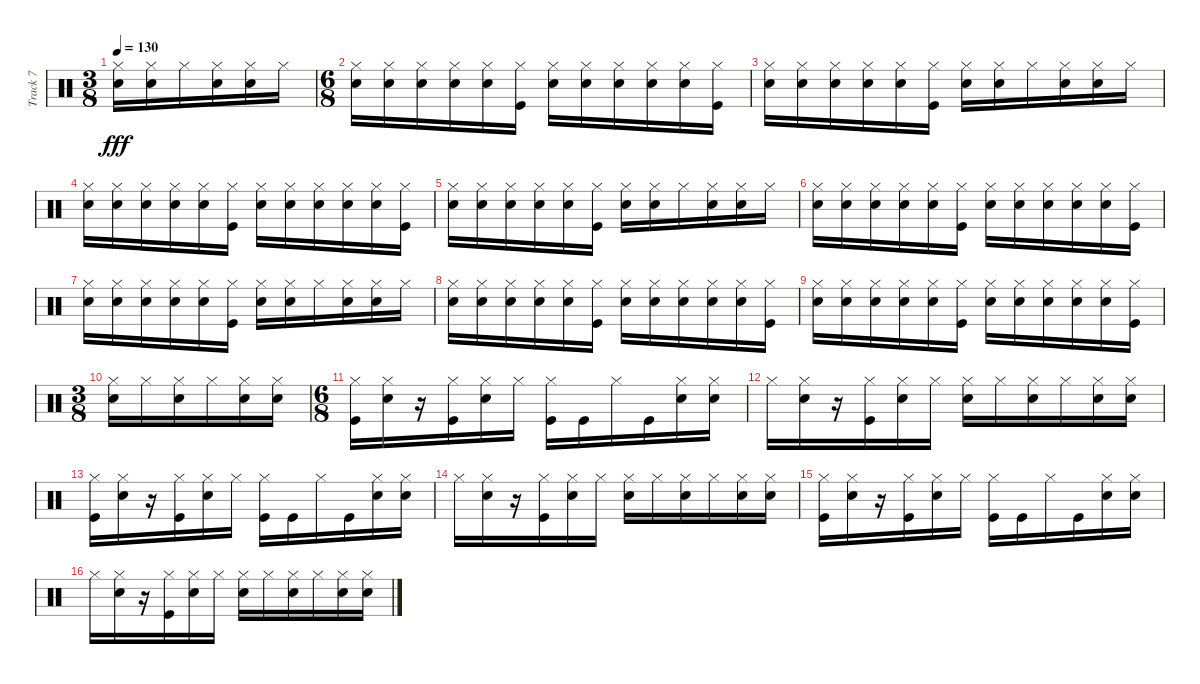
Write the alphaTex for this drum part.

\track ("Track 7" "Track 7") {instrument percussion}
\staff {score}
\articulation defaults
\ts (3 8)
\tempo 130
\clef neutral
\ks c
("Snare (hit) 2" "Hi-Hat (closed)").16{dy fff} ("Snare (hit) 2" "Hi-Hat (closed)").16 "Hi-Hat (closed)".16 ("Snare (hit) 2" "Hi-Hat (closed)").16 ("Snare (hit) 2" "Hi-Hat (closed)").16 "Hi-Hat (closed)".16 |
\ts (6 8)
("Snare (hit) 2" "Hi-Hat (closed)").16 ("Snare (hit) 2" "Hi-Hat (closed)").16 ("Snare (hit) 2" "Hi-Hat (closed)").16 ("Snare (hit) 2" "Hi-Hat (closed)").16 ("Snare (hit) 2" "Hi-Hat (closed)").16 ("Kick (hit)" "Hi-Hat (closed)").16 ("Snare (hit) 2" "Hi-Hat (closed)").16 ("Snare (hit) 2" "Hi-Hat (closed)").16 ("Snare (hit) 2" "Hi-Hat (closed)").16 ("Snare (hit) 2" "Hi-Hat (closed)").16 ("Snare (hit) 2" "Hi-Hat (closed)").16 ("Kick (hit)" "Hi-Hat (closed)").16 |
("Snare (hit) 2" "Hi-Hat (closed)").16 ("Snare (hit) 2" "Hi-Hat (closed)").16 ("Snare (hit) 2" "Hi-Hat (closed)").16 ("Snare (hit) 2" "Hi-Hat (closed)").16 ("Snare (hit) 2" "Hi-Hat (closed)").16 ("Kick (hit)" "Hi-Hat (closed)").16 ("Snare (hit) 2" "Hi-Hat (closed)").16 ("Snare (hit) 2" "Hi-Hat (closed)").16 "Hi-Hat (closed)".16 ("Snare (hit) 2" "Hi-Hat (closed)").16 ("Snare (hit) 2" "Hi-Hat (closed)").16 "Hi-Hat (closed)".16 |
("Snare (hit) 2" "Hi-Hat (closed)").16 ("Snare (hit) 2" "Hi-Hat (closed)").16 ("Snare (hit) 2" "Hi-Hat (closed)").16 ("Snare (hit) 2" "Hi-Hat (closed)").16 ("Snare (hit) 2" "Hi-Hat (closed)").16 ("Kick (hit)" "Hi-Hat (closed)").16 ("Snare (hit) 2" "Hi-Hat (closed)").16 ("Snare (hit) 2" "Hi-Hat (closed)").16 ("Snare (hit) 2" "Hi-Hat (closed)").16 ("Snare (hit) 2" "Hi-Hat (closed)").16 ("Snare (hit) 2" "Hi-Hat (closed)").16 ("Kick (hit)" "Hi-Hat (closed)").16 |
("Snare (hit) 2" "Hi-Hat (closed)").16 ("Snare (hit) 2" "Hi-Hat (closed)").16 ("Snare (hit) 2" "Hi-Hat (closed)").16 ("Snare (hit) 2" "Hi-Hat (closed)").16 ("Snare (hit) 2" "Hi-Hat (closed)").16 ("Kick (hit)" "Hi-Hat (closed)").16 ("Snare (hit) 2" "Hi-Hat (closed)").16 ("Snare (hit) 2" "Hi-Hat (closed)").16 "Hi-Hat (closed)".16 ("Snare (hit) 2" "Hi-Hat (closed)").16 ("Snare (hit) 2" "Hi-Hat (closed)").16 "Hi-Hat (closed)".16 |
("Snare (hit) 2" "Hi-Hat (closed)").16 ("Snare (hit) 2" "Hi-Hat (closed)").16 ("Snare (hit) 2" "Hi-Hat (closed)").16 ("Snare (hit) 2" "Hi-Hat (closed)").16 ("Snare (hit) 2" "Hi-Hat (closed)").16 ("Kick (hit)" "Hi-Hat (closed)").16 ("Snare (hit) 2" "Hi-Hat (closed)").16 ("Snare (hit) 2" "Hi-Hat (closed)").16 ("Snare (hit) 2" "Hi-Hat (closed)").16 ("Snare (hit) 2" "Hi-Hat (closed)").16 ("Snare (hit) 2" "Hi-Hat (closed)").16 ("Kick (hit)" "Hi-Hat (closed)").16 |
("Snare (hit) 2" "Hi-Hat (closed)").16 ("Snare (hit) 2" "Hi-Hat (closed)").16 ("Snare (hit) 2" "Hi-Hat (closed)").16 ("Snare (hit) 2" "Hi-Hat (closed)").16 ("Snare (hit) 2" "Hi-Hat (closed)").16 ("Kick (hit)" "Hi-Hat (closed)").16 ("Snare (hit) 2" "Hi-Hat (closed)").16 ("Snare (hit) 2" "Hi-Hat (closed)").16 "Hi-Hat (closed)".16 ("Snare (hit) 2" "Hi-Hat (closed)").16 ("Snare (hit) 2" "Hi-Hat (closed)").16 "Hi-Hat (closed)".16 |
("Snare (hit) 2" "Hi-Hat (closed)").16 ("Snare (hit) 2" "Hi-Hat (closed)").16 ("Snare (hit) 2" "Hi-Hat (closed)").16 ("Snare (hit) 2" "Hi-Hat (closed)").16 ("Snare (hit) 2" "Hi-Hat (closed)").16 ("Kick (hit)" "Hi-Hat (closed)").16 ("Snare (hit) 2" "Hi-Hat (closed)").16 ("Snare (hit) 2" "Hi-Hat (closed)").16 ("Snare (hit) 2" "Hi-Hat (closed)").16 ("Snare (hit) 2" "Hi-Hat (closed)").16 ("Snare (hit) 2" "Hi-Hat (closed)").16 ("Kick (hit)" "Hi-Hat (closed)").16 |
("Snare (hit) 2" "Hi-Hat (closed)").16 ("Snare (hit) 2" "Hi-Hat (closed)").16 ("Snare (hit) 2" "Hi-Hat (closed)").16 ("Snare (hit) 2" "Hi-Hat (closed)").16 ("Snare (hit) 2" "Hi-Hat (closed)").16 ("Kick (hit)" "Hi-Hat (closed)").16 ("Snare (hit) 2" "Hi-Hat (closed)").16 ("Snare (hit) 2" "Hi-Hat (closed)").16 ("Snare (hit) 2" "Hi-Hat (closed)").16 ("Snare (hit) 2" "Hi-Hat (closed)").16 ("Snare (hit) 2" "Hi-Hat (closed)").16 ("Kick (hit)" "Hi-Hat (closed)").16 |
\ts (3 8)
("Snare (hit) 2" "Hi-Hat (closed)").16 "Hi-Hat (closed)".16 ("Snare (hit) 2" "Hi-Hat (closed)").16 "Hi-Hat (closed)".16 ("Snare (hit) 2" "Hi-Hat (closed)").16 ("Snare (hit) 2" "Hi-Hat (closed)").16 |
\ts (6 8)
("Kick (hit)" "Hi-Hat (closed)").16 ("Snare (hit) 2" "Hi-Hat (closed)").16 r.16 ("Kick (hit)" "Hi-Hat (closed)").16 ("Snare (hit) 2" "Hi-Hat (closed)").16 "Hi-Hat (closed)".16 ("Kick (hit)" "Hi-Hat (closed)").16 "Kick (hit)".16 "Hi-Hat (closed)".16 "Kick (hit)".16 ("Snare (hit) 2" "Hi-Hat (closed)").16 ("Snare (hit) 2" "Hi-Hat (closed)").16 |
"Hi-Hat (closed)".16 ("Snare (hit) 2" "Hi-Hat (closed)").16 r.16 ("Kick (hit)" "Hi-Hat (closed)").16 ("Snare (hit) 2" "Hi-Hat (closed)").16 "Hi-Hat (closed)".16 ("Snare (hit) 2" "Hi-Hat (closed)").16 "Hi-Hat (closed)".16 ("Snare (hit) 2" "Hi-Hat (closed)").16 "Hi-Hat (closed)".16 ("Snare (hit) 2" "Hi-Hat (closed)").16 ("Snare (hit) 2" "Hi-Hat (closed)").16 |
("Kick (hit)" "Hi-Hat (closed)").16 ("Snare (hit) 2" "Hi-Hat (closed)").16 r.16 ("Kick (hit)" "Hi-Hat (closed)").16 ("Snare (hit) 2" "Hi-Hat (closed)").16 "Hi-Hat (closed)".16 ("Kick (hit)" "Hi-Hat (closed)").16 "Kick (hit)".16 "Hi-Hat (closed)".16 "Kick (hit)".16 ("Snare (hit) 2" "Hi-Hat (closed)").16 ("Snare (hit) 2" "Hi-Hat (closed)").16 |
"Hi-Hat (closed)".16 ("Snare (hit) 2" "Hi-Hat (closed)").16 r.16 ("Kick (hit)" "Hi-Hat (closed)").16 ("Snare (hit) 2" "Hi-Hat (closed)").16 "Hi-Hat (closed)".16 ("Snare (hit) 2" "Hi-Hat (closed)").16 "Hi-Hat (closed)".16 ("Snare (hit) 2" "Hi-Hat (closed)").16 "Hi-Hat (closed)".16 ("Snare (hit) 2" "Hi-Hat (closed)").16 ("Snare (hit) 2" "Hi-Hat (closed)").16 |
("Kick (hit)" "Hi-Hat (closed)").16 ("Snare (hit) 2" "Hi-Hat (closed)").16 r.16 ("Kick (hit)" "Hi-Hat (closed)").16 ("Snare (hit) 2" "Hi-Hat (closed)").16 "Hi-Hat (closed)".16 ("Kick (hit)" "Hi-Hat (closed)").16 "Kick (hit)".16 "Hi-Hat (closed)".16 "Kick (hit)".16 ("Snare (hit) 2" "Hi-Hat (closed)").16 ("Snare (hit) 2" "Hi-Hat (closed)").16 |
"Hi-Hat (closed)".16 ("Snare (hit) 2" "Hi-Hat (closed)").16 r.16 ("Kick (hit)" "Hi-Hat (closed)").16 ("Snare (hit) 2" "Hi-Hat (closed)").16 "Hi-Hat (closed)".16 ("Snare (hit) 2" "Hi-Hat (closed)").16 "Hi-Hat (closed)".16 ("Snare (hit) 2" "Hi-Hat (closed)").16 "Hi-Hat (closed)".16 ("Snare (hit) 2" "Hi-Hat (closed)").16 ("Snare (hit) 2" "Hi-Hat (closed)").16
